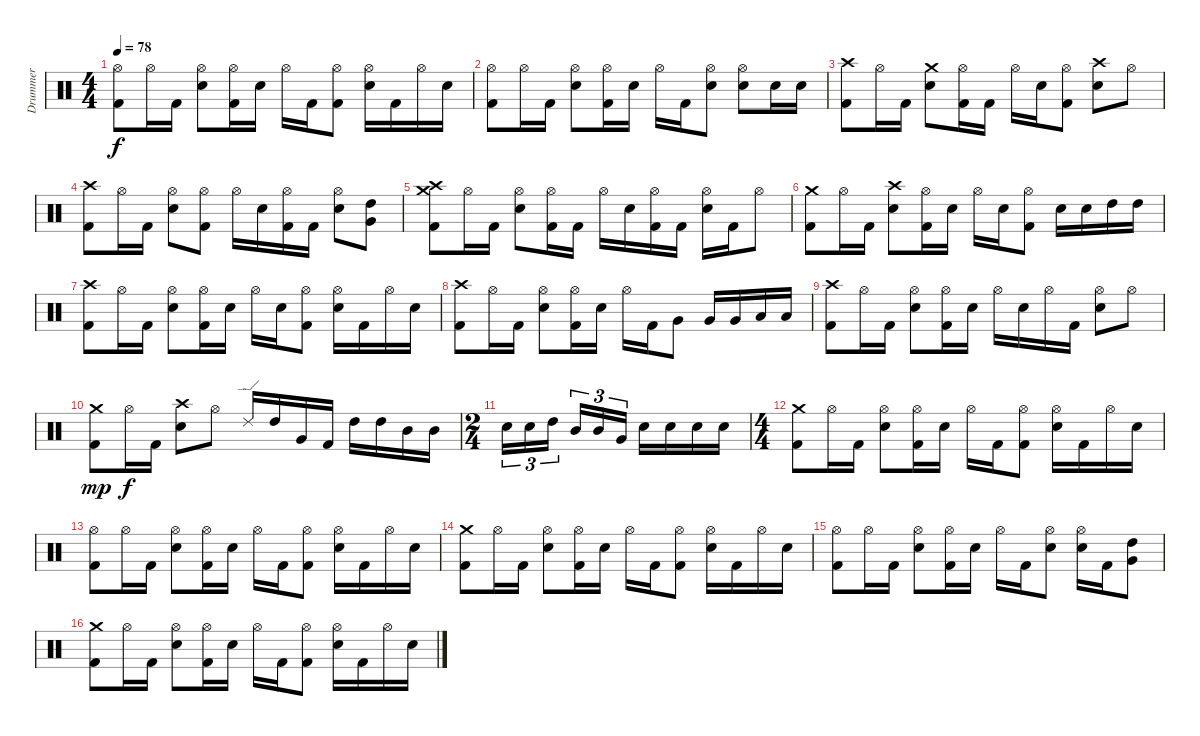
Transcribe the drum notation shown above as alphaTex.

\track ("Drummer" "Drummer") {instrument percussion}
\staff {score}
\articulation defaults
\ts (4 4)
\tempo 78
\clef neutral
\ks c
("Hi-Hat (open)" "Kick (hit) 2").8{dy f} "Hi-Hat (open)".16 "Kick (hit) 2".16 ("Hi-Hat (open)" "Electric Snare (hit)").8 ("Hi-Hat (open)" "Kick (hit) 2").16 "Electric Snare (hit)".16 "Hi-Hat (open)".16 "Kick (hit) 2".16 ("Hi-Hat (open)" "Kick (hit) 2").8 ("Hi-Hat (open)" "Electric Snare (hit)").16 "Kick (hit) 2".16 "Hi-Hat (open)".16 "Electric Snare (hit)".16 |
("Hi-Hat (open)" "Kick (hit) 2").8 "Hi-Hat (open)".16 "Kick (hit) 2".16 ("Hi-Hat (open)" "Electric Snare (hit)").8 ("Hi-Hat (open)" "Kick (hit) 2").16 "Electric Snare (hit)".16 "Hi-Hat (open)".16 "Kick (hit) 2".16 ("Hi-Hat (open)" "Electric Snare (hit)").8 ("Hi-Hat (open)" "Electric Snare (hit)").8 "Electric Snare (hit)".16 "Electric Snare (hit)".16 |
("Crash high (hit)" "Kick (hit) 2").8 "Hi-Hat (open)".16 "Kick (hit) 2".16 ("Crash medium (hit)" "Electric Snare (hit)").8 ("Hi-Hat (open)" "Kick (hit) 2").16 "Kick (hit) 2".16 "Hi-Hat (open)".16 "Electric Snare (hit)".16 ("Hi-Hat (open)" "Kick (hit) 2").8 ("Crash high (hit)" "Electric Snare (hit)").8 "Hi-Hat (open)".8 |
("Crash high (hit)" "Kick (hit) 2").8 "Hi-Hat (open)".16 "Kick (hit) 2".16 ("Hi-Hat (open)" "Electric Snare (hit)").8 ("Hi-Hat (open)" "Kick (hit) 2").8 "Hi-Hat (open)".16 "Electric Snare (hit)".16 ("Hi-Hat (open)" "Kick (hit) 2").16 "Kick (hit) 2".16 ("Hi-Hat (open)" "Electric Snare (hit)").8 ("High Tom (hit)" "Very Low Tom (hit)").8 |
("Crash high (hit)" "Crash medium (hit)" "Kick (hit) 2").8 "Hi-Hat (open)".16 "Kick (hit) 2".16 ("Hi-Hat (open)" "Electric Snare (hit)").8 ("Hi-Hat (open)" "Kick (hit) 2").16 "Kick (hit) 2".16 "Hi-Hat (open)".16 "Electric Snare (hit)".16 ("Hi-Hat (open)" "Kick (hit) 2").16 "Kick (hit) 2".16 ("Hi-Hat (open)" "Electric Snare (hit)").16 "Kick (hit) 2".16 "Hi-Hat (open)".8 |
("Crash medium (hit)" "Kick (hit) 2").8 "Hi-Hat (open)".16 "Kick (hit) 2".16 ("Crash high (hit)" "Electric Snare (hit)").8 ("Hi-Hat (open)" "Kick (hit) 2").16 "Electric Snare (hit)".16 "Hi-Hat (open)".16 "Electric Snare (hit)".16 ("Hi-Hat (open)" "Kick (hit) 2").8 "Electric Snare (hit)".16 "Electric Snare (hit)".16 "High Tom (hit)".16 "High Tom (hit)".16 |
("Crash high (hit)" "Kick (hit) 2").8 "Hi-Hat (open)".16 "Kick (hit) 2".16 ("Hi-Hat (open)" "Electric Snare (hit)").8 ("Hi-Hat (open)" "Kick (hit) 2").16 "Electric Snare (hit)".16 "Hi-Hat (open)".16 "Electric Snare (hit)".16 ("Hi-Hat (open)" "Kick (hit) 2").8 ("Hi-Hat (open)" "Electric Snare (hit)").16 "Kick (hit) 2".16 "Hi-Hat (open)".16 "Electric Snare (hit)".16 |
("Crash high (hit)" "Kick (hit) 2").8 "Hi-Hat (open)".16 "Kick (hit) 2".16 ("Hi-Hat (open)" "Electric Snare (hit)").8 ("Hi-Hat (open)" "Kick (hit) 2").16 "Electric Snare (hit)".16 "Hi-Hat (open)".16 "Kick (hit) 2".16 "Very Low Tom (hit)".8 "Very Low Tom (hit)".16 "Very Low Tom (hit)".16 "Low Floor Tom (hit)".16 "Low Floor Tom (hit)".16 |
("Crash high (hit)" "Kick (hit) 2").8 "Hi-Hat (open)".16 "Kick (hit) 2".16 ("Hi-Hat (open)" "Electric Snare (hit)").8 ("Hi-Hat (open)" "Kick (hit) 2").16 "Electric Snare (hit)".16 "Hi-Hat (open)".16 "Electric Snare (hit)".16 "Hi-Hat (open)".16 "Kick (hit) 2".16 ("Hi-Hat (open)" "Electric Snare (hit)").8 "Hi-Hat (open)".8 |
("Crash medium (hit)" "Kick (hit) 2").8{dy mp} "Hi-Hat (open)".16{dy f} "Kick (hit) 2".16 ("Crash high (hit)" "Electric Snare (hit)").8 "Hi-Hat (open)".8 "Ride (edge) 2".16 "High Tom (hit)".16 "Very Low Tom (hit)".16 "Kick (hit) 2".16 "High Tom (hit)".16 "High Tom (hit)".16 "Mid Tom (hit)".16 "Mid Tom (hit)".16 |
\ts (2 4)
"Electric Snare (hit)".16{tu (3 2)} "Electric Snare (hit)".16{tu (3 2)} "High Tom (hit)".16{tu (3 2) beam splitsecondary} "Mid Tom (hit)".16{tu (3 2)} "Mid Tom (hit)".16{tu (3 2)} "Very Low Tom (hit)".16{tu (3 2)} "Electric Snare (hit)".16 "Electric Snare (hit)".16 "Electric Snare (hit)".16 "Electric Snare (hit)".16 |
\ts (4 4)
("Crash medium (hit)" "Kick (hit) 2").8 "Hi-Hat (open)".16 "Kick (hit) 2".16 ("Hi-Hat (open)" "Electric Snare (hit)").8 ("Hi-Hat (open)" "Kick (hit) 2").16 "Electric Snare (hit)".16 "Hi-Hat (open)".16 "Kick (hit) 2".16 ("Hi-Hat (open)" "Kick (hit) 2").8 ("Hi-Hat (open)" "Electric Snare (hit)").16 "Kick (hit) 2".16 "Hi-Hat (open)".16 "Electric Snare (hit)".16 |
("Hi-Hat (open)" "Kick (hit) 2").8 "Hi-Hat (open)".16 "Kick (hit) 2".16 ("Hi-Hat (open)" "Electric Snare (hit)").8 ("Hi-Hat (open)" "Kick (hit) 2").16 "Electric Snare (hit)".16 "Hi-Hat (open)".16 "Kick (hit) 2".16 ("Hi-Hat (open)" "Kick (hit) 2").8 ("Hi-Hat (open)" "Electric Snare (hit)").16 "Kick (hit) 2".16 "Hi-Hat (open)".16 "Electric Snare (hit)".16 |
("Crash medium (hit)" "Kick (hit) 2").8 "Hi-Hat (open)".16 "Kick (hit) 2".16 ("Hi-Hat (open)" "Electric Snare (hit)").8 ("Hi-Hat (open)" "Kick (hit) 2").16 "Electric Snare (hit)".16 "Hi-Hat (open)".16 "Kick (hit) 2".16 ("Hi-Hat (open)" "Kick (hit) 2").8 ("Hi-Hat (open)" "Electric Snare (hit)").16 "Kick (hit) 2".16 "Hi-Hat (open)".16 "Electric Snare (hit)".16 |
("Hi-Hat (open)" "Kick (hit) 2").8 "Hi-Hat (open)".16 "Kick (hit) 2".16 ("Hi-Hat (open)" "Electric Snare (hit)").8 ("Hi-Hat (open)" "Kick (hit) 2").16 "Electric Snare (hit)".16 "Hi-Hat (open)".16 "Kick (hit) 2".16 ("Hi-Hat (open)" "Electric Snare (hit)").8 ("Hi-Hat (open)" "Electric Snare (hit)").16 "Kick (hit) 2".16 ("High Tom (hit)" "Very Low Tom (hit)").8 |
("Crash medium (hit)" "Kick (hit) 2").8 "Hi-Hat (open)".16 "Kick (hit) 2".16 ("Hi-Hat (open)" "Electric Snare (hit)").8 ("Hi-Hat (open)" "Kick (hit) 2").16 "Electric Snare (hit)".16 "Hi-Hat (open)".16 "Kick (hit) 2".16 ("Hi-Hat (open)" "Kick (hit) 2").8 ("Hi-Hat (open)" "Electric Snare (hit)").16 "Kick (hit) 2".16 "Hi-Hat (open)".16 "Electric Snare (hit)".16
